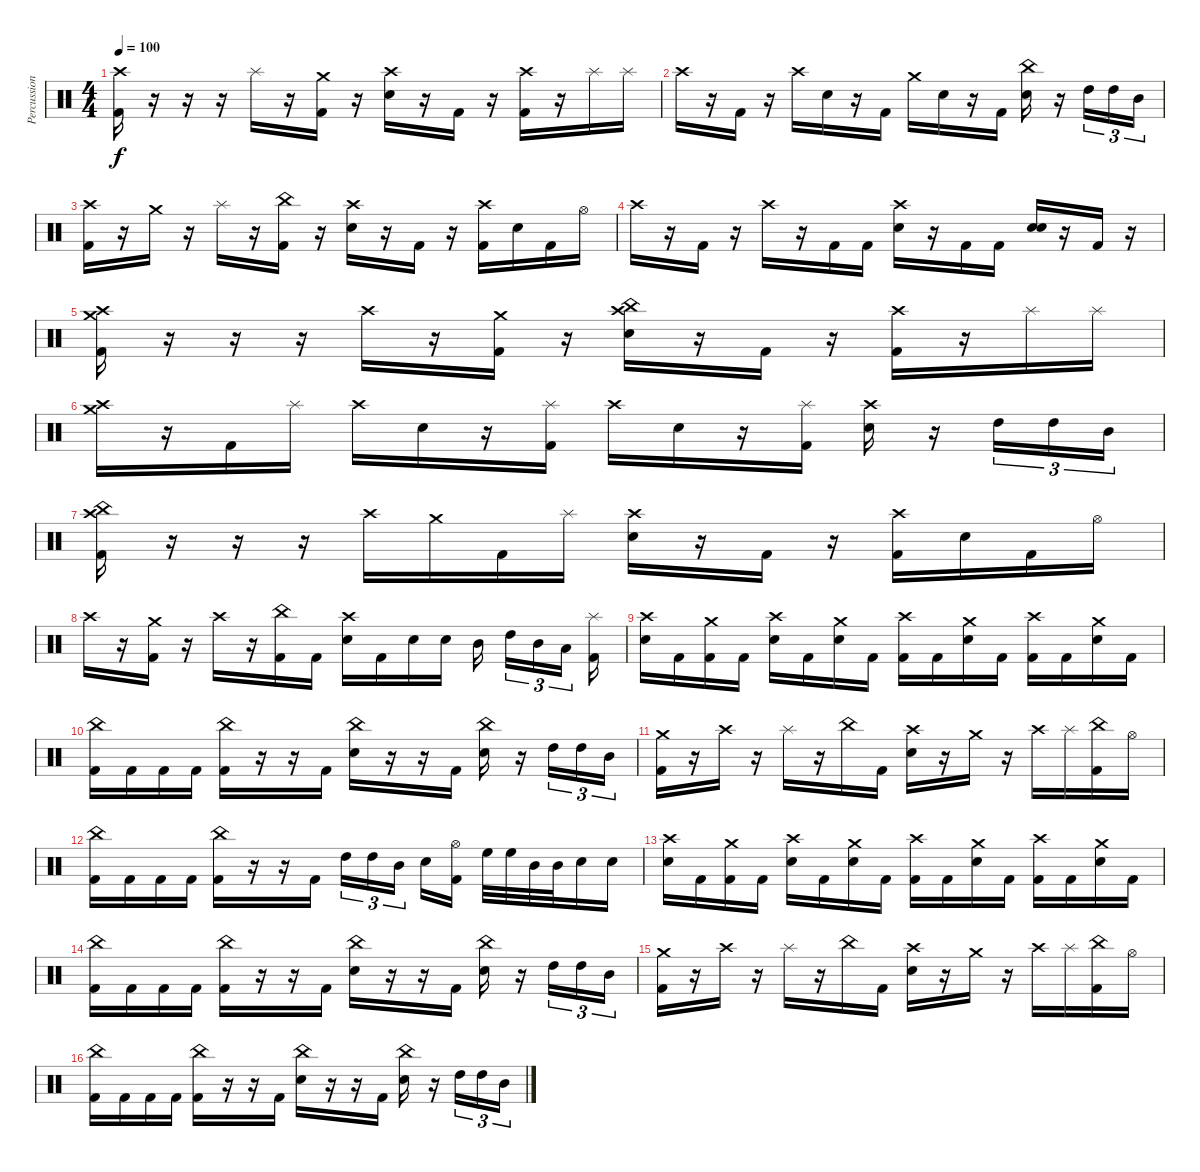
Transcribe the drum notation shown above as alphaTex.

\track ("Percussion" "Percussion") {instrument percussion}
\staff {score}
\articulation defaults
\ts (4 4)
\tempo 100
\clef neutral
\ks c
("Crash high (hit)" "Kick (hit) 2").16{dy f} r.16 r.16 r.16 "Splash (hit)".16 r.16 ("Crash medium (hit)" "Kick (hit) 2").16 r.16 ("Crash high (hit)" "Electric Snare (hit)").16 r.16 "Kick (hit) 2".16 r.16 ("Crash high (hit)" "Kick (hit) 2").16 r.16 "Splash (hit)".16 "Splash (hit)".16 |
"Crash high (hit)".16 r.16 "Kick (hit) 2".16 r.16 "Crash high (hit)".16 "Electric Snare (hit)".16 r.16 "Kick (hit) 2".16 "Crash medium (hit)".16 "Electric Snare (hit)".16 r.16 "Kick (hit) 2".16 ("China (hit)" "Electric Snare (hit)").16 r.16 "High Tom (hit)".16{tu (3 2)} "High Tom (hit)".16{tu (3 2)} "Mid Tom (hit)".16{tu (3 2)} |
("Crash high (hit)" "Kick (hit) 2").16 r.16 "Crash medium (hit)".16 r.16 "Splash (hit)".16 r.16 ("China (hit)" "Kick (hit) 2").16 r.16 ("Crash high (hit)" "Electric Snare (hit)").16 r.16 "Kick (hit) 2".16 r.16 ("Crash high (hit)" "Kick (hit) 2").16 "Electric Snare (hit)".16 "Kick (hit) 2".16 "Hi-Hat (open)".16 |
"Crash high (hit)".16 r.16 "Kick (hit) 2".16 r.16 "Crash high (hit)".16 r.16 "Kick (hit) 2".16 "Kick (hit) 2".16 ("Crash high (hit)" "Electric Snare (hit)").16 r.16 "Kick (hit) 2".16 "Kick (hit) 2".16 ("Electric Snare (hit)" "Electric Snare (hit)").16 r.16 "Kick (hit) 2".16 r.16 |
("Crash high (hit)" "Crash medium (hit)" "Kick (hit) 2").16 r.16 r.16 r.16 "Crash high (hit)".16 r.16 ("Crash medium (hit)" "Kick (hit) 2").16 r.16 ("China (hit)" "Crash high (hit)" "Electric Snare (hit)").16 r.16 "Kick (hit) 2".16 r.16 ("Crash high (hit)" "Kick (hit) 2").16 r.16 "Splash (hit)".16 "Splash (hit)".16 |
("Crash medium (hit)" "Crash high (hit)").16 r.16 "Kick (hit) 2".16 "Splash (hit)".16 "Crash high (hit)".16 "Electric Snare (hit)".16 r.16 ("Splash (hit)" "Kick (hit) 2").16 "Crash high (hit)".16 "Electric Snare (hit)".16 r.16 ("Splash (hit)" "Kick (hit) 2").16 ("Crash high (hit)" "Electric Snare (hit)").16 r.16 "High Tom (hit)".16{tu (3 2)} "High Tom (hit)".16{tu (3 2)} "Mid Tom (hit)".16{tu (3 2)} |
("China (hit)" "Crash high (hit)" "Kick (hit) 2").16 r.16 r.16 r.16 "Crash high (hit)".16 "Crash medium (hit)".16 "Kick (hit) 2".16 "Splash (hit)".16 ("Crash high (hit)" "Electric Snare (hit)").16 r.16 "Kick (hit) 2".16 r.16 ("Crash high (hit)" "Kick (hit) 2").16 "Electric Snare (hit)".16 "Kick (hit) 2".16 "Hi-Hat (open)".16 |
"Crash high (hit)".16 r.16 ("Crash medium (hit)" "Kick (hit) 2").16 r.16 "Crash high (hit)".16 r.16 ("China (hit)" "Kick (hit) 2").16 "Kick (hit) 2".16 ("Crash high (hit)" "Electric Snare (hit)").16 "Kick (hit) 2".16 "Electric Snare (hit)".16 "Electric Snare (hit)".16 "Mid Tom (hit)".16 "High Tom (hit)".16{tu (3 2)} "Mid Tom (hit)".16{tu (3 2)} "Low Tom (hit)".16{tu (3 2)} ("Splash (hit)" "Kick (hit) 2").16 |
("Crash high (hit)" "Electric Snare (hit)").16 "Kick (hit) 2".16 ("Crash medium (hit)" "Kick (hit) 2").16 "Kick (hit) 2".16 ("Crash high (hit)" "Electric Snare (hit)").16 "Kick (hit) 2".16 ("Crash medium (hit)" "Electric Snare (hit)").16 "Kick (hit) 2".16 ("Crash high (hit)" "Kick (hit) 2").16 "Kick (hit) 2".16 ("Crash medium (hit)" "Electric Snare (hit)").16 "Kick (hit) 2".16 ("Crash high (hit)" "Kick (hit) 2").16 "Kick (hit) 2".16 ("Crash medium (hit)" "Electric Snare (hit)").16 "Kick (hit) 2".16 |
("China (hit)" "Kick (hit) 2").16 "Kick (hit) 2".16 "Kick (hit) 2".16 "Kick (hit) 2".16 ("China (hit)" "Kick (hit) 2").16 r.16 r.16 "Kick (hit) 2".16 ("China (hit)" "Electric Snare (hit)").16 r.16 r.16 "Kick (hit) 2".16 ("China (hit)" "Electric Snare (hit)").16 r.16 "High Tom (hit)".16{tu (3 2)} "High Tom (hit)".16{tu (3 2)} "Mid Tom (hit)".16{tu (3 2)} |
("Crash medium (hit)" "Kick (hit) 2").16 r.16 "Crash high (hit)".16 r.16 "Splash (hit)".16 r.16 "China (hit)".16 "Kick (hit) 2".16 ("Crash high (hit)" "Electric Snare (hit)").16 r.16 "Crash medium (hit)".16 r.16 "Crash high (hit)".16 "Splash (hit)".16 ("China (hit)" "Kick (hit) 2").16 "Hi-Hat (open)".16 |
("China (hit)" "Kick (hit) 2").16 "Kick (hit) 2".16 "Kick (hit) 2".16 "Kick (hit) 2".16 ("China (hit)" "Kick (hit) 2").16 r.16 r.16 "Kick (hit) 2".16 "High Tom (hit)".16{tu (3 2)} "High Tom (hit)".16{tu (3 2)} "Mid Tom (hit)".16{tu (3 2)} "Electric Snare (hit)".16 ("Hi-Hat (open)" "Kick (hit) 2").16 "High Floor Tom (hit)".32 "High Floor Tom (hit)".32 "Mid Tom (hit)".32 "Mid Tom (hit)".32 "Electric Snare (hit)".16 "Electric Snare (hit)".16 |
("Crash high (hit)" "Electric Snare (hit)").16 "Kick (hit) 2".16 ("Crash medium (hit)" "Kick (hit) 2").16 "Kick (hit) 2".16 ("Crash high (hit)" "Electric Snare (hit)").16 "Kick (hit) 2".16 ("Crash medium (hit)" "Electric Snare (hit)").16 "Kick (hit) 2".16 ("Crash high (hit)" "Kick (hit) 2").16 "Kick (hit) 2".16 ("Crash medium (hit)" "Electric Snare (hit)").16 "Kick (hit) 2".16 ("Crash high (hit)" "Kick (hit) 2").16 "Kick (hit) 2".16 ("Crash medium (hit)" "Electric Snare (hit)").16 "Kick (hit) 2".16 |
("China (hit)" "Kick (hit) 2").16 "Kick (hit) 2".16 "Kick (hit) 2".16 "Kick (hit) 2".16 ("China (hit)" "Kick (hit) 2").16 r.16 r.16 "Kick (hit) 2".16 ("China (hit)" "Electric Snare (hit)").16 r.16 r.16 "Kick (hit) 2".16 ("China (hit)" "Electric Snare (hit)").16 r.16 "High Tom (hit)".16{tu (3 2)} "High Tom (hit)".16{tu (3 2)} "Mid Tom (hit)".16{tu (3 2)} |
("Crash medium (hit)" "Kick (hit) 2").16 r.16 "Crash high (hit)".16 r.16 "Splash (hit)".16 r.16 "China (hit)".16 "Kick (hit) 2".16 ("Crash high (hit)" "Electric Snare (hit)").16 r.16 "Crash medium (hit)".16 r.16 "Crash high (hit)".16 "Splash (hit)".16 ("China (hit)" "Kick (hit) 2").16 "Hi-Hat (open)".16 |
("China (hit)" "Kick (hit) 2").16 "Kick (hit) 2".16 "Kick (hit) 2".16 "Kick (hit) 2".16 ("China (hit)" "Kick (hit) 2").16 r.16 r.16 "Kick (hit) 2".16 ("China (hit)" "Electric Snare (hit)").16 r.16 r.16 "Kick (hit) 2".16 ("China (hit)" "Electric Snare (hit)").16 r.16 "High Tom (hit)".16{tu (3 2)} "High Tom (hit)".16{tu (3 2)} "Mid Tom (hit)".16{tu (3 2)}
